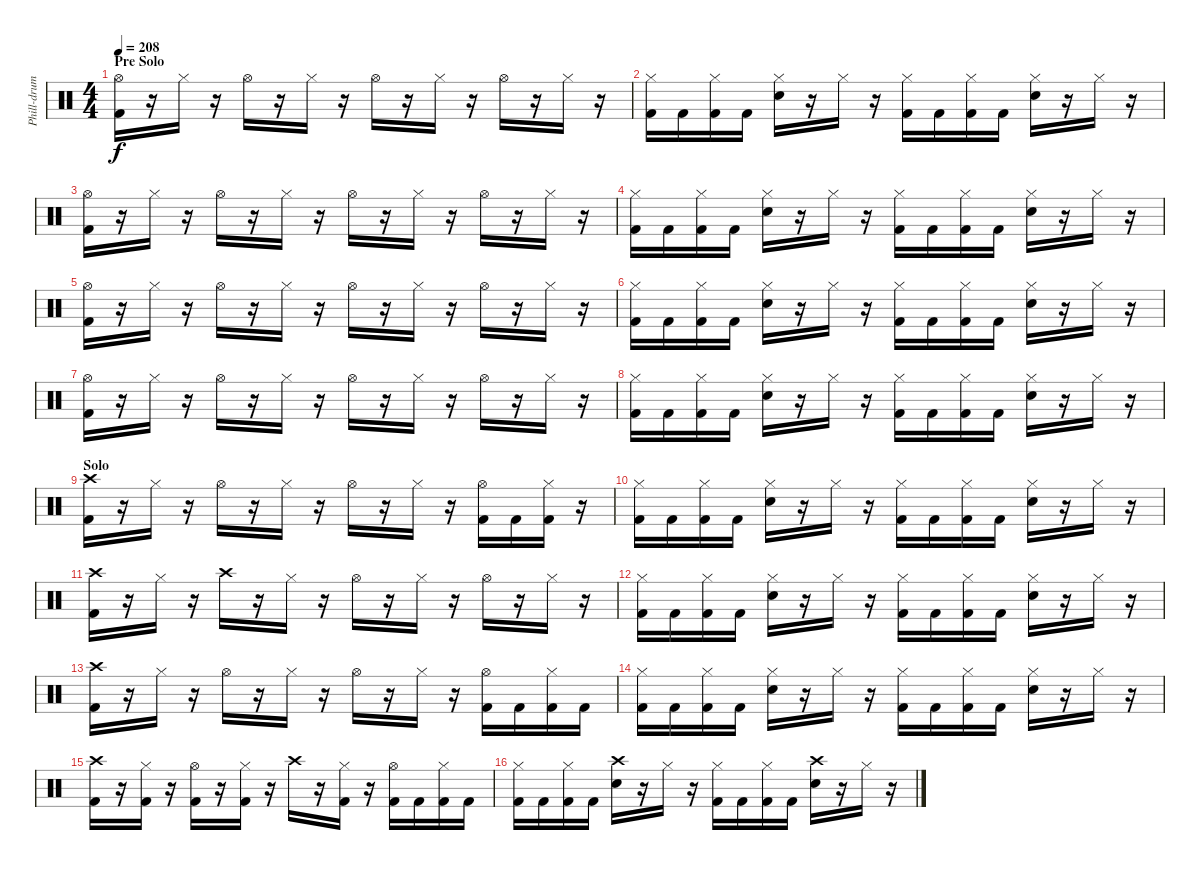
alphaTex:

\track ("Phill-drum" "Phill-drum") {instrument percussion}
\staff {score}
\articulation defaults
\ts (4 4)
\section ("" "Pre Solo")
\tempo 208
\clef neutral
\ks c
("Hi-Hat (open)" "Kick (hit) 2").16{dy f} r.16 "Hi-Hat (closed)".16 r.16 "Hi-Hat (open)".16 r.16 "Hi-Hat (closed)".16 r.16 "Hi-Hat (open)".16 r.16 "Hi-Hat (closed)".16 r.16 "Hi-Hat (open)".16 r.16 "Hi-Hat (closed)".16 r.16 |
("Hi-Hat (closed)" "Kick (hit) 2").16 "Kick (hit) 2".16 ("Hi-Hat (closed)" "Kick (hit) 2").16 "Kick (hit) 2".16 ("Hi-Hat (closed)" "Electric Snare (hit)").16 r.16 "Hi-Hat (closed)".16 r.16 ("Hi-Hat (closed)" "Kick (hit) 2").16 "Kick (hit) 2".16 ("Hi-Hat (closed)" "Kick (hit) 2").16 "Kick (hit) 2".16 ("Hi-Hat (closed)" "Electric Snare (hit)").16 r.16 "Hi-Hat (closed)".16 r.16 |
("Hi-Hat (open)" "Kick (hit) 2").16 r.16 "Hi-Hat (closed)".16 r.16 "Hi-Hat (open)".16 r.16 "Hi-Hat (closed)".16 r.16 "Hi-Hat (open)".16 r.16 "Hi-Hat (closed)".16 r.16 "Hi-Hat (open)".16 r.16 "Hi-Hat (closed)".16 r.16 |
("Hi-Hat (closed)" "Kick (hit) 2").16 "Kick (hit) 2".16 ("Hi-Hat (closed)" "Kick (hit) 2").16 "Kick (hit) 2".16 ("Hi-Hat (closed)" "Electric Snare (hit)").16 r.16 "Hi-Hat (closed)".16 r.16 ("Hi-Hat (closed)" "Kick (hit) 2").16 "Kick (hit) 2".16 ("Hi-Hat (closed)" "Kick (hit) 2").16 "Kick (hit) 2".16 ("Hi-Hat (closed)" "Electric Snare (hit)").16 r.16 "Hi-Hat (closed)".16 r.16 |
("Hi-Hat (open)" "Kick (hit) 2").16 r.16 "Hi-Hat (closed)".16 r.16 "Hi-Hat (open)".16 r.16 "Hi-Hat (closed)".16 r.16 "Hi-Hat (open)".16 r.16 "Hi-Hat (closed)".16 r.16 "Hi-Hat (open)".16 r.16 "Hi-Hat (closed)".16 r.16 |
("Hi-Hat (closed)" "Kick (hit) 2").16 "Kick (hit) 2".16 ("Hi-Hat (closed)" "Kick (hit) 2").16 "Kick (hit) 2".16 ("Hi-Hat (closed)" "Electric Snare (hit)").16 r.16 "Hi-Hat (closed)".16 r.16 ("Hi-Hat (closed)" "Kick (hit) 2").16 "Kick (hit) 2".16 ("Hi-Hat (closed)" "Kick (hit) 2").16 "Kick (hit) 2".16 ("Hi-Hat (closed)" "Electric Snare (hit)").16 r.16 "Hi-Hat (closed)".16 r.16 |
("Hi-Hat (open)" "Kick (hit) 2").16 r.16 "Hi-Hat (closed)".16 r.16 "Hi-Hat (open)".16 r.16 "Hi-Hat (closed)".16 r.16 "Hi-Hat (open)".16 r.16 "Hi-Hat (closed)".16 r.16 "Hi-Hat (open)".16 r.16 "Hi-Hat (closed)".16 r.16 |
("Hi-Hat (closed)" "Kick (hit) 2").16 "Kick (hit) 2".16 ("Hi-Hat (closed)" "Kick (hit) 2").16 "Kick (hit) 2".16 ("Hi-Hat (closed)" "Electric Snare (hit)").16 r.16 "Hi-Hat (closed)".16 r.16 ("Hi-Hat (closed)" "Kick (hit) 2").16 "Kick (hit) 2".16 ("Hi-Hat (closed)" "Kick (hit) 2").16 "Kick (hit) 2".16 ("Hi-Hat (closed)" "Electric Snare (hit)").16 r.16 "Hi-Hat (closed)".16 r.16 |
\section ("" "Solo")
("Crash high (hit)" "Kick (hit) 2").16 r.16 "Hi-Hat (closed)".16 r.16 "Hi-Hat (open)".16 r.16 "Hi-Hat (closed)".16 r.16 "Hi-Hat (open)".16 r.16 "Hi-Hat (closed)".16 r.16 ("Hi-Hat (open)" "Kick (hit) 2").16 "Kick (hit) 2".16 ("Hi-Hat (closed)" "Kick (hit) 2").16 r.16 |
("Hi-Hat (closed)" "Kick (hit) 2").16 "Kick (hit) 2".16 ("Hi-Hat (closed)" "Kick (hit) 2").16 "Kick (hit) 2".16 ("Hi-Hat (closed)" "Electric Snare (hit)").16 r.16 "Hi-Hat (closed)".16 r.16 ("Hi-Hat (closed)" "Kick (hit) 2").16 "Kick (hit) 2".16 ("Hi-Hat (closed)" "Kick (hit) 2").16 "Kick (hit) 2".16 ("Hi-Hat (closed)" "Electric Snare (hit)").16 r.16 "Hi-Hat (closed)".16 r.16 |
("Crash high (hit)" "Kick (hit) 2").16 r.16 "Hi-Hat (closed)".16 r.16 "Crash high (hit)".16 r.16 "Hi-Hat (closed)".16 r.16 "Hi-Hat (open)".16 r.16 "Hi-Hat (closed)".16 r.16 "Hi-Hat (open)".16 r.16 "Hi-Hat (closed)".16 r.16 |
("Hi-Hat (closed)" "Kick (hit) 2").16 "Kick (hit) 2".16 ("Hi-Hat (closed)" "Kick (hit) 2").16 "Kick (hit) 2".16 ("Hi-Hat (closed)" "Electric Snare (hit)").16 r.16 "Hi-Hat (closed)".16 r.16 ("Hi-Hat (closed)" "Kick (hit) 2").16 "Kick (hit) 2".16 ("Hi-Hat (closed)" "Kick (hit) 2").16 "Kick (hit) 2".16 ("Hi-Hat (closed)" "Electric Snare (hit)").16 r.16 "Hi-Hat (closed)".16 r.16 |
("Crash high (hit)" "Kick (hit) 2").16 r.16 "Hi-Hat (closed)".16 r.16 "Hi-Hat (open)".16 r.16 "Hi-Hat (closed)".16 r.16 "Hi-Hat (open)".16 r.16 "Hi-Hat (closed)".16 r.16 ("Hi-Hat (open)" "Kick (hit) 2").16 "Kick (hit) 2".16 ("Hi-Hat (closed)" "Kick (hit) 2").16 "Kick (hit) 2".16 |
("Hi-Hat (closed)" "Kick (hit) 2").16 "Kick (hit) 2".16 ("Hi-Hat (closed)" "Kick (hit) 2").16 "Kick (hit) 2".16 ("Hi-Hat (closed)" "Electric Snare (hit)").16 r.16 "Hi-Hat (closed)".16 r.16 ("Hi-Hat (closed)" "Kick (hit) 2").16 "Kick (hit) 2".16 ("Hi-Hat (closed)" "Kick (hit) 2").16 "Kick (hit) 2".16 ("Hi-Hat (closed)" "Electric Snare (hit)").16 r.16 "Hi-Hat (closed)".16 r.16 |
("Crash high (hit)" "Kick (hit) 2").16 r.16 ("Hi-Hat (closed)" "Kick (hit) 2").16 r.16 ("Hi-Hat (open)" "Kick (hit) 2").16 r.16 ("Hi-Hat (closed)" "Kick (hit) 2").16 r.16 "Crash high (hit)".16 r.16 ("Hi-Hat (closed)" "Kick (hit) 2").16 r.16 ("Hi-Hat (open)" "Kick (hit) 2").16 "Kick (hit) 2".16 ("Hi-Hat (closed)" "Kick (hit) 2").16 "Kick (hit) 2".16 |
("Hi-Hat (closed)" "Kick (hit) 2").16 "Kick (hit) 2".16 ("Hi-Hat (closed)" "Kick (hit) 2").16 "Kick (hit) 2".16 ("Crash high (hit)" "Electric Snare (hit)").16 r.16 "Hi-Hat (closed)".16 r.16 ("Hi-Hat (closed)" "Kick (hit) 2").16 "Kick (hit) 2".16 ("Hi-Hat (closed)" "Kick (hit) 2").16 "Kick (hit) 2".16 ("Crash high (hit)" "Electric Snare (hit)").16 r.16 "Hi-Hat (closed)".16 r.16
